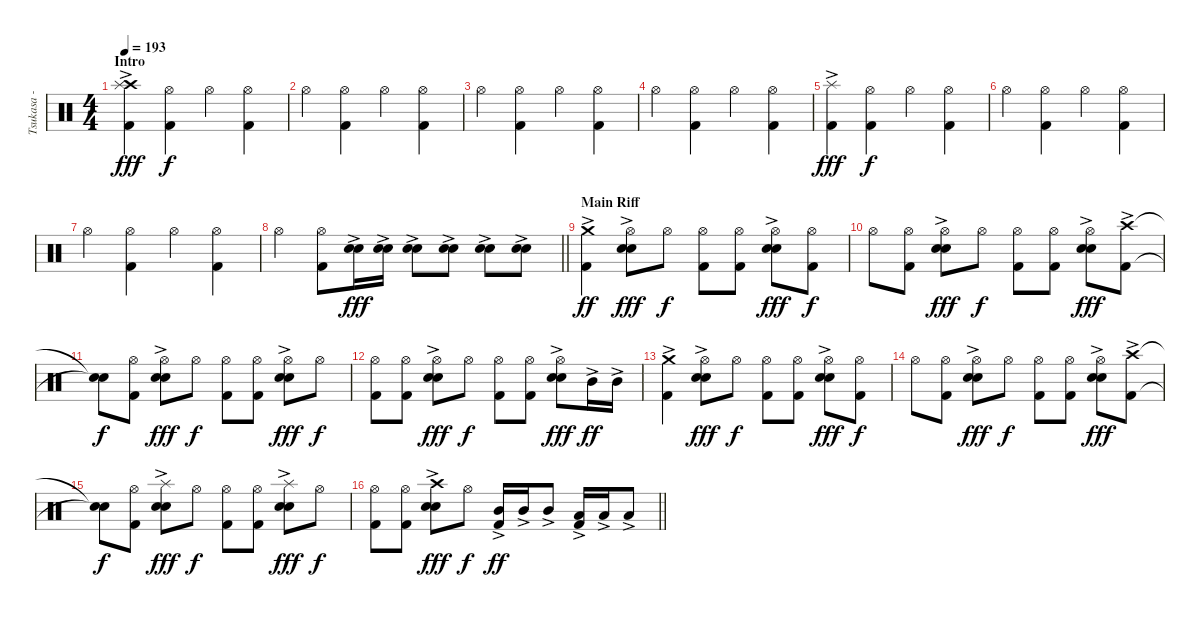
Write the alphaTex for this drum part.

\track ("Tsukasa - Drums" "Tsukasa - ") {instrument percussion}
\staff {score}
\articulation defaults
\ts (4 4)
\section ("" "Intro")
\tempo 193
\clef neutral
\ks c
("Crash high (hit)"{ac} "Splash (hit)"{ac} "Kick (hit) 2").4{dy fff} ("Hi-Hat (open)" "Kick (hit) 2").4{dy f} "Hi-Hat (open)".4 ("Hi-Hat (open)" "Kick (hit) 2").4 |
"Hi-Hat (open)".4 ("Hi-Hat (open)" "Kick (hit) 2").4 "Hi-Hat (open)".4 ("Hi-Hat (open)" "Kick (hit) 2").4 |
"Hi-Hat (open)".4 ("Hi-Hat (open)" "Kick (hit) 2").4 "Hi-Hat (open)".4 ("Hi-Hat (open)" "Kick (hit) 2").4 |
"Hi-Hat (open)".4 ("Hi-Hat (open)" "Kick (hit) 2").4 "Hi-Hat (open)".4 ("Hi-Hat (open)" "Kick (hit) 2").4 |
("Splash (hit)"{ac} "Kick (hit) 2").4{dy fff} ("Hi-Hat (open)" "Kick (hit) 2").4{dy f} "Hi-Hat (open)".4 ("Hi-Hat (open)" "Kick (hit) 2").4 |
"Hi-Hat (open)".4 ("Hi-Hat (open)" "Kick (hit) 2").4 "Hi-Hat (open)".4 ("Hi-Hat (open)" "Kick (hit) 2").4 |
"Hi-Hat (open)".4 ("Hi-Hat (open)" "Kick (hit) 2").4 "Hi-Hat (open)".4 ("Hi-Hat (open)" "Kick (hit) 2").4 |
\barLineRight lightlight "Hi-Hat (open)".4
("Hi-Hat (open)" "Kick (hit) 2").8 ("Electric Snare (hit)"{ac} "Snare (hit) 2").16{dy fff} ("Electric Snare (hit)"{ac} "Snare (hit) 2").16 ("Electric Snare (hit)"{ac} "Snare (hit) 2").8 ("Electric Snare (hit)"{ac} "Snare (hit) 2").8 ("Electric Snare (hit)"{ac} "Snare (hit) 2").8 ("Electric Snare (hit)"{ac} "Snare (hit) 2").8 |
\section ("" "Main Riff")
("Crash medium (hit)"{ac} "Kick (hit) 2").4{dy ff} ("Hi-Hat (open)" "Electric Snare (hit)"{ac} "Snare (hit) 2").8{dy fff} "Hi-Hat (open)".8{dy f} ("Hi-Hat (open)" "Kick (hit) 2").8 ("Hi-Hat (open)" "Kick (hit) 2").8 ("Hi-Hat (open)" "Electric Snare (hit)"{ac} "Snare (hit) 2").8{dy fff} ("Hi-Hat (open)" "Kick (hit) 2").8{dy f} |
"Hi-Hat (open)".8 ("Hi-Hat (open)" "Kick (hit) 2").8 ("Hi-Hat (open)" "Electric Snare (hit)"{ac} "Snare (hit) 2").8{dy fff} "Hi-Hat (open)".8{dy f} ("Hi-Hat (open)" "Kick (hit) 2").8 ("Hi-Hat (open)" "Kick (hit) 2").8 ("Hi-Hat (open)" "Electric Snare (hit)"{ac} "Snare (hit) 2").8{dy fff} ("Crash high (hit)"{ac} "Kick (hit) 2").8 |
("Snare (hit)"{t} "Snare (hit)"{t}).8{dy f} ("Hi-Hat (open)" "Kick (hit) 2").8 ("Hi-Hat (open)" "Electric Snare (hit)"{ac} "Snare (hit) 2").8{dy fff} "Hi-Hat (open)".8{dy f} ("Hi-Hat (open)" "Kick (hit) 2").8 ("Hi-Hat (open)" "Kick (hit) 2").8 ("Hi-Hat (open)" "Electric Snare (hit)"{ac} "Snare (hit) 2").8{dy fff} "Hi-Hat (open)".8{dy f} |
("Hi-Hat (open)" "Kick (hit) 2").8 ("Hi-Hat (open)" "Kick (hit) 2").8 ("Hi-Hat (open)" "Electric Snare (hit)"{ac} "Snare (hit) 2").8{dy fff} "Hi-Hat (open)".8{dy f} ("Hi-Hat (open)" "Kick (hit) 2").8 ("Hi-Hat (open)" "Kick (hit) 2").8 ("Hi-Hat (open)" "Electric Snare (hit)"{ac} "Snare (hit) 2").8{dy fff} "Mid Tom (hit)"{ac}.16{dy ff} "Mid Tom (hit)"{ac}.16 |
("Crash medium (hit)"{ac} "Kick (hit) 2").4 ("Hi-Hat (open)" "Electric Snare (hit)"{ac} "Snare (hit) 2").8{dy fff} "Hi-Hat (open)".8{dy f} ("Hi-Hat (open)" "Kick (hit) 2").8 ("Hi-Hat (open)" "Kick (hit) 2").8 ("Hi-Hat (open)" "Electric Snare (hit)"{ac} "Snare (hit) 2").8{dy fff} ("Hi-Hat (open)" "Kick (hit) 2").8{dy f} |
"Hi-Hat (open)".8 ("Hi-Hat (open)" "Kick (hit) 2").8 ("Hi-Hat (open)" "Electric Snare (hit)"{ac} "Snare (hit) 2").8{dy fff} "Hi-Hat (open)".8{dy f} ("Hi-Hat (open)" "Kick (hit) 2").8 ("Hi-Hat (open)" "Kick (hit) 2").8 ("Hi-Hat (open)" "Electric Snare (hit)"{ac} "Snare (hit) 2").8{dy fff} ("Crash high (hit)"{ac} "Kick (hit) 2").8 |
("Snare (hit)"{t} "Snare (hit)"{t}).8{dy f} ("Hi-Hat (open)" "Kick (hit) 2").8 ("Splash (hit)"{ac} "Electric Snare (hit)"{ac} "Snare (hit) 2").8{dy fff} "Hi-Hat (open)".8{dy f} ("Hi-Hat (open)" "Kick (hit) 2").8 ("Hi-Hat (open)" "Kick (hit) 2").8 ("Splash (hit)"{ac} "Electric Snare (hit)"{ac} "Snare (hit) 2").8{dy fff} "Hi-Hat (open)".8{dy f} |
\barLineRight lightlight
("Hi-Hat (open)" "Kick (hit) 2").8 ("Hi-Hat (open)" "Kick (hit) 2").8 ("Crash high (hit)"{ac} "Electric Snare (hit)"{ac} "Snare (hit) 2").8{dy fff} "Hi-Hat (open)".8{dy f} ("Mid Tom (hit)"{ac} "Kick (hit) 2").16{dy ff} "Mid Tom (hit)"{ac}.16 "Mid Tom (hit)"{ac}.8 ("Low Tom (hit)"{ac} "Kick (hit) 2").16 "Low Tom (hit)"{ac}.16 "Low Tom (hit)"{ac}.8
